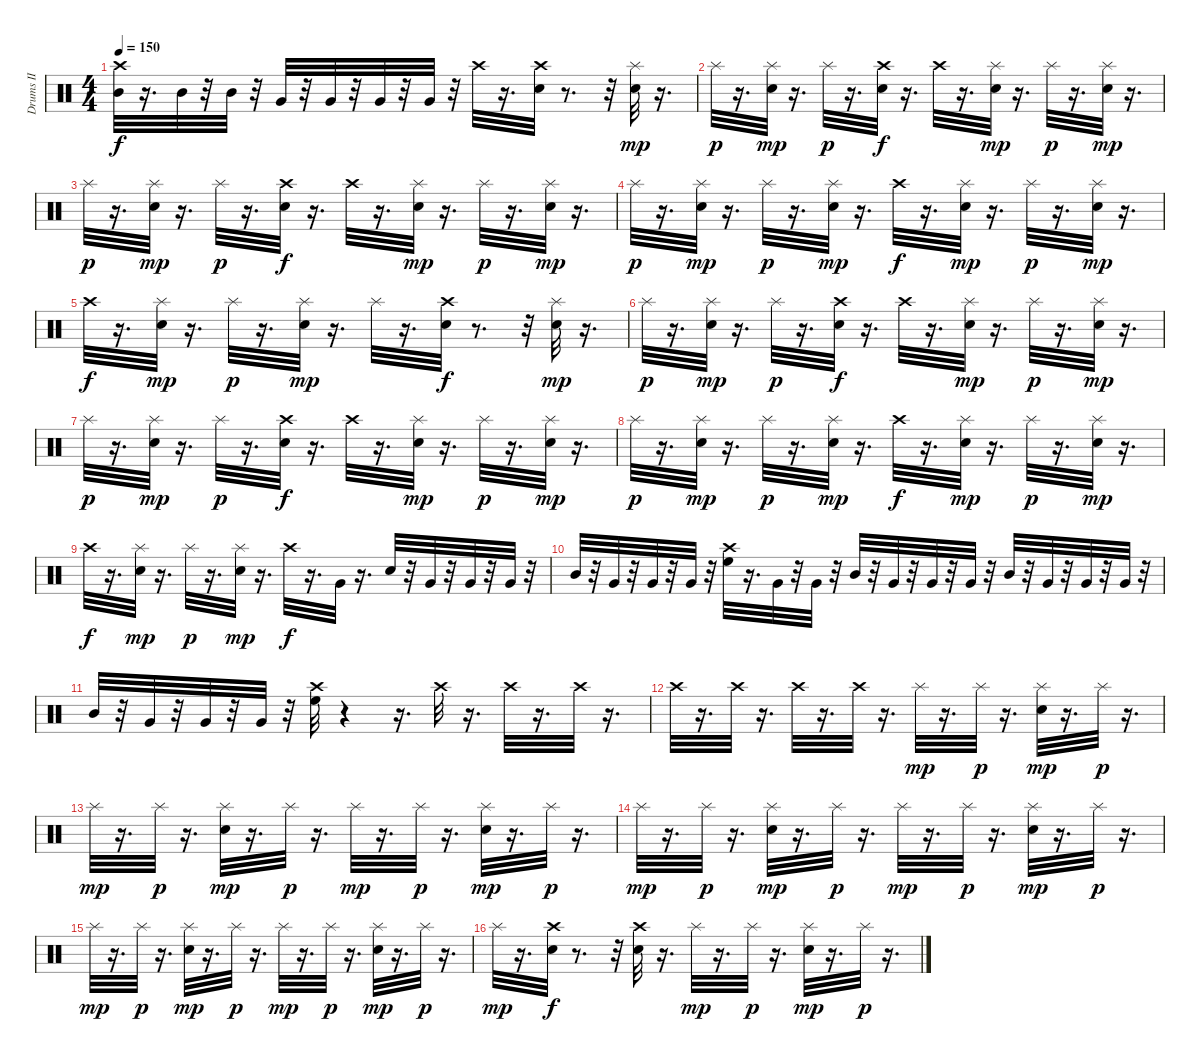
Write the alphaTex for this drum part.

\track ("Drums II" "Drums II") {instrument percussion}
\staff {score}
\articulation defaults
\ts (4 4)
\tempo 150
\clef neutral
\ks c
("Crash high (hit)" "Mid Tom (hit)").32{dy f} r.16{d} "Mid Tom (hit)".32 r.32 "Mid Tom (hit)".32 r.32 "Very Low Tom (hit)".32 r.32 "Very Low Tom (hit)".32 r.32 "Very Low Tom (hit)".32 r.32 "Very Low Tom (hit)".32 r.32 "Crash high (hit)".32 r.16{d} ("Crash high (hit)" "Snare (hit) 2").32 r.8{d} r.32 ("Splash (hit)" "Snare (hit) 2").32{dy mp} r.16{d} |
"Splash (hit)".32{dy p} r.16{d} ("Splash (hit)" "Snare (hit) 2").32{dy mp} r.16{d} "Splash (hit)".32{dy p} r.16{d} ("Crash high (hit)" "Snare (hit) 2").32{dy f} r.16{d} "Crash high (hit)".32 r.16{d} ("Splash (hit)" "Snare (hit) 2").32{dy mp} r.16{d} "Splash (hit)".32{dy p} r.16{d} ("Splash (hit)" "Snare (hit) 2").32{dy mp} r.16{d} |
"Splash (hit)".32{dy p} r.16{d} ("Splash (hit)" "Snare (hit) 2").32{dy mp} r.16{d} "Splash (hit)".32{dy p} r.16{d} ("Crash high (hit)" "Snare (hit) 2").32{dy f} r.16{d} "Crash high (hit)".32 r.16{d} ("Splash (hit)" "Snare (hit) 2").32{dy mp} r.16{d} "Splash (hit)".32{dy p} r.16{d} ("Splash (hit)" "Snare (hit) 2").32{dy mp} r.16{d} |
"Splash (hit)".32{dy p} r.16{d} ("Splash (hit)" "Snare (hit) 2").32{dy mp} r.16{d} "Splash (hit)".32{dy p} r.16{d} ("Splash (hit)" "Snare (hit) 2").32{dy mp} r.16{d} "Crash high (hit)".32{dy f} r.16{d} ("Splash (hit)" "Snare (hit) 2").32{dy mp} r.16{d} "Splash (hit)".32{dy p} r.16{d} ("Splash (hit)" "Snare (hit) 2").32{dy mp} r.16{d} |
"Crash high (hit)".32{dy f} r.16{d} ("Splash (hit)" "Snare (hit) 2").32{dy mp} r.16{d} "Splash (hit)".32{dy p} r.16{d} ("Splash (hit)" "Snare (hit) 2").32{dy mp} r.16{d} "Splash (hit)".32 r.16{d} ("Crash high (hit)" "Snare (hit) 2").32{dy f} r.8{d} r.32 ("Splash (hit)" "Snare (hit) 2").32{dy mp} r.16{d} |
"Splash (hit)".32{dy p} r.16{d} ("Splash (hit)" "Snare (hit) 2").32{dy mp} r.16{d} "Splash (hit)".32{dy p} r.16{d} ("Crash high (hit)" "Snare (hit) 2").32{dy f} r.16{d} "Crash high (hit)".32 r.16{d} ("Splash (hit)" "Snare (hit) 2").32{dy mp} r.16{d} "Splash (hit)".32{dy p} r.16{d} ("Splash (hit)" "Snare (hit) 2").32{dy mp} r.16{d} |
"Splash (hit)".32{dy p} r.16{d} ("Splash (hit)" "Snare (hit) 2").32{dy mp} r.16{d} "Splash (hit)".32{dy p} r.16{d} ("Crash high (hit)" "Snare (hit) 2").32{dy f} r.16{d} "Crash high (hit)".32 r.16{d} ("Splash (hit)" "Snare (hit) 2").32{dy mp} r.16{d} "Splash (hit)".32{dy p} r.16{d} ("Splash (hit)" "Snare (hit) 2").32{dy mp} r.16{d} |
"Splash (hit)".32{dy p} r.16{d} ("Splash (hit)" "Snare (hit) 2").32{dy mp} r.16{d} "Splash (hit)".32{dy p} r.16{d} ("Splash (hit)" "Snare (hit) 2").32{dy mp} r.16{d} "Crash high (hit)".32{dy f} r.16{d} ("Splash (hit)" "Snare (hit) 2").32{dy mp} r.16{d} "Splash (hit)".32{dy p} r.16{d} ("Splash (hit)" "Snare (hit) 2").32{dy mp} r.16{d} |
"Crash high (hit)".32{dy f} r.16{d} ("Splash (hit)" "Snare (hit) 2").32{dy mp} r.16{d} "Splash (hit)".32{dy p} r.16{d} ("Splash (hit)" "Snare (hit) 2").32{dy mp} r.16{d} "Crash high (hit)".32{dy f} r.16{d} "Very Low Tom (hit)".32 r.16{d} "Snare (hit) 2".32 r.32 "Very Low Tom (hit)".32 r.32 "Very Low Tom (hit)".32 r.32 "Very Low Tom (hit)".32 r.32 |
"Mid Tom (hit)".32 r.32 "Very Low Tom (hit)".32 r.32 "Very Low Tom (hit)".32 r.32 "Very Low Tom (hit)".32 r.32 ("Crash high (hit)" "High Floor Tom (hit)").32 r.16{d} "Very Low Tom (hit)".32 r.32 "Very Low Tom (hit)".32 r.32 "Mid Tom (hit)".32 r.32 "Very Low Tom (hit)".32 r.32 "Very Low Tom (hit)".32 r.32 "Very Low Tom (hit)".32 r.32 "Mid Tom (hit)".32 r.32 "Very Low Tom (hit)".32 r.32 "Very Low Tom (hit)".32 r.32 "Very Low Tom (hit)".32 r.32 |
"Mid Tom (hit)".32 r.32 "Very Low Tom (hit)".32 r.32 "Very Low Tom (hit)".32 r.32 "Very Low Tom (hit)".32 r.32 ("Crash high (hit)" "High Floor Tom (hit)").32 r.4 r.16{d} "Crash high (hit)".32 r.16{d} "Crash high (hit)".32 r.16{d} "Crash high (hit)".32 r.16{d} |
"Crash high (hit)".32 r.16{d} "Crash high (hit)".32 r.16{d} "Crash high (hit)".32 r.16{d} "Crash high (hit)".32 r.16{d} "Splash (hit)".32{dy mp} r.16{d} "Splash (hit)".32{dy p} r.16{d} ("Snare (hit) 2" "Splash (hit)").32{dy mp} r.16{d} "Splash (hit)".32{dy p} r.16{d} |
"Splash (hit)".32{dy mp} r.16{d} "Splash (hit)".32{dy p} r.16{d} ("Snare (hit) 2" "Splash (hit)").32{dy mp} r.16{d} "Splash (hit)".32{dy p} r.16{d} "Splash (hit)".32{dy mp} r.16{d} "Splash (hit)".32{dy p} r.16{d} ("Snare (hit) 2" "Splash (hit)").32{dy mp} r.16{d} "Splash (hit)".32{dy p} r.16{d} |
"Splash (hit)".32{dy mp} r.16{d} "Splash (hit)".32{dy p} r.16{d} ("Snare (hit) 2" "Splash (hit)").32{dy mp} r.16{d} "Splash (hit)".32{dy p} r.16{d} "Splash (hit)".32{dy mp} r.16{d} "Splash (hit)".32{dy p} r.16{d} ("Snare (hit) 2" "Splash (hit)").32{dy mp} r.16{d} "Splash (hit)".32{dy p} r.16{d} |
"Splash (hit)".32{dy mp} r.16{d} "Splash (hit)".32{dy p} r.16{d} ("Snare (hit) 2" "Splash (hit)").32{dy mp} r.16{d} "Splash (hit)".32{dy p} r.16{d} "Splash (hit)".32{dy mp} r.16{d} "Splash (hit)".32{dy p} r.16{d} ("Snare (hit) 2" "Splash (hit)").32{dy mp} r.16{d} "Splash (hit)".32{dy p} r.16{d} |
"Splash (hit)".32{dy mp} r.16{d} ("Crash high (hit)" "Snare (hit) 2").32{dy f} r.8{d} r.32 ("Crash high (hit)" "Snare (hit) 2").32 r.16{d} "Splash (hit)".32{dy mp} r.16{d} "Splash (hit)".32{dy p} r.16{d} ("Snare (hit) 2" "Splash (hit)").32{dy mp} r.16{d} "Splash (hit)".32{dy p} r.16{d}
